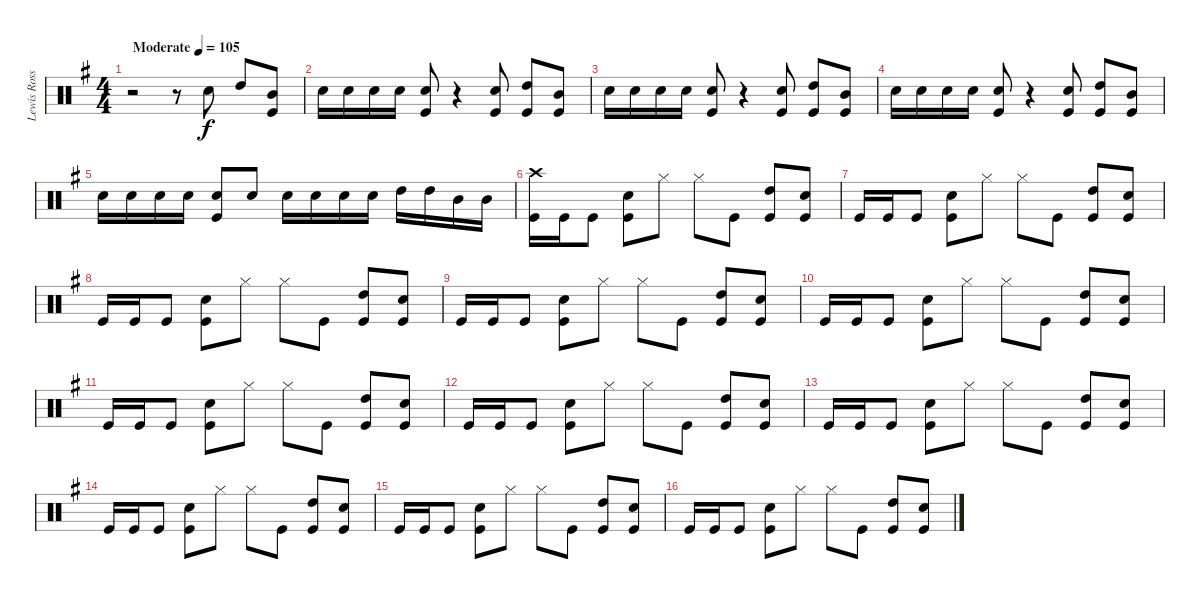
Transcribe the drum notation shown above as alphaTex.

\track ("Lewis Ross Drums" "Lewis Ross") {instrument percussion}
\staff {score}
\articulation defaults
\ts (4 4)
\tempo (105 "Moderate")
\clef neutral
\ks g
r.2{dy f} r.8 "Snare (hit) 2".8 "High Tom (hit)".8 ("Mid Tom (hit)" "Kick (hit)").8 |
"Snare (hit) 2".16 "Snare (hit) 2".16 "Snare (hit) 2".16 "Snare (hit) 2".16 ("Snare (hit) 2" "Kick (hit)").8 r.4 ("Snare (hit) 2" "Kick (hit)").8 ("High Tom (hit)" "Kick (hit)").8 ("Mid Tom (hit)" "Kick (hit)").8 |
"Snare (hit) 2".16 "Snare (hit) 2".16 "Snare (hit) 2".16 "Snare (hit) 2".16 ("Snare (hit) 2" "Kick (hit)").8 r.4 ("Snare (hit) 2" "Kick (hit)").8 ("High Tom (hit)" "Kick (hit)").8 ("Mid Tom (hit)" "Kick (hit)").8 |
"Snare (hit) 2".16 "Snare (hit) 2".16 "Snare (hit) 2".16 "Snare (hit) 2".16 ("Snare (hit) 2" "Kick (hit)").8 r.4 ("Snare (hit) 2" "Kick (hit)").8 ("High Tom (hit)" "Kick (hit)").8 ("Mid Tom (hit)" "Kick (hit)").8 |
"Snare (hit) 2".16 "Snare (hit) 2".16 "Snare (hit) 2".16 "Snare (hit) 2".16 ("Snare (hit) 2" "Kick (hit)").8 "Snare (hit) 2".8 "Snare (hit) 2".16 "Snare (hit) 2".16 "Snare (hit) 2".16 "Snare (hit) 2".16 "High Tom (hit)".16 "High Tom (hit)".16 "Mid Tom (hit)".16 "Mid Tom (hit)".16 |
("Crash high (hit)" "Kick (hit)").16 "Kick (hit)".16 "Kick (hit)".8 ("Snare (hit) 2" "Kick (hit)").8 "Hi-Hat (closed)".8 "Hi-Hat (closed)".8 "Kick (hit)".8 ("High Tom (hit)" "Kick (hit)").8 ("Snare (hit) 2" "Kick (hit)").8 |
"Kick (hit)".16 "Kick (hit)".16 "Kick (hit)".8 ("Snare (hit) 2" "Kick (hit)").8 "Hi-Hat (closed)".8 "Hi-Hat (closed)".8 "Kick (hit)".8 ("High Tom (hit)" "Kick (hit)").8 ("Snare (hit) 2" "Kick (hit)").8 |
"Kick (hit)".16 "Kick (hit)".16 "Kick (hit)".8 ("Snare (hit) 2" "Kick (hit)").8 "Hi-Hat (closed)".8 "Hi-Hat (closed)".8 "Kick (hit)".8 ("High Tom (hit)" "Kick (hit)").8 ("Snare (hit) 2" "Kick (hit)").8 |
"Kick (hit)".16 "Kick (hit)".16 "Kick (hit)".8 ("Snare (hit) 2" "Kick (hit)").8 "Hi-Hat (closed)".8 "Hi-Hat (closed)".8 "Kick (hit)".8 ("High Tom (hit)" "Kick (hit)").8 ("Snare (hit) 2" "Kick (hit)").8 |
"Kick (hit)".16 "Kick (hit)".16 "Kick (hit)".8 ("Snare (hit) 2" "Kick (hit)").8 "Hi-Hat (closed)".8 "Hi-Hat (closed)".8 "Kick (hit)".8 ("High Tom (hit)" "Kick (hit)").8 ("Snare (hit) 2" "Kick (hit)").8 |
"Kick (hit)".16 "Kick (hit)".16 "Kick (hit)".8 ("Snare (hit) 2" "Kick (hit)").8 "Hi-Hat (closed)".8 "Hi-Hat (closed)".8 "Kick (hit)".8 ("High Tom (hit)" "Kick (hit)").8 ("Snare (hit) 2" "Kick (hit)").8 |
"Kick (hit)".16 "Kick (hit)".16 "Kick (hit)".8 ("Snare (hit) 2" "Kick (hit)").8 "Hi-Hat (closed)".8 "Hi-Hat (closed)".8 "Kick (hit)".8 ("High Tom (hit)" "Kick (hit)").8 ("Snare (hit) 2" "Kick (hit)").8 |
"Kick (hit)".16 "Kick (hit)".16 "Kick (hit)".8 ("Snare (hit) 2" "Kick (hit)").8 "Hi-Hat (closed)".8 "Hi-Hat (closed)".8 "Kick (hit)".8 ("High Tom (hit)" "Kick (hit)").8 ("Snare (hit) 2" "Kick (hit)").8 |
"Kick (hit)".16 "Kick (hit)".16 "Kick (hit)".8 ("Snare (hit) 2" "Kick (hit)").8 "Hi-Hat (closed)".8 "Hi-Hat (closed)".8 "Kick (hit)".8 ("High Tom (hit)" "Kick (hit)").8 ("Snare (hit) 2" "Kick (hit)").8 |
"Kick (hit)".16 "Kick (hit)".16 "Kick (hit)".8 ("Snare (hit) 2" "Kick (hit)").8 "Hi-Hat (closed)".8 "Hi-Hat (closed)".8 "Kick (hit)".8 ("High Tom (hit)" "Kick (hit)").8 ("Snare (hit) 2" "Kick (hit)").8 |
"Kick (hit)".16 "Kick (hit)".16 "Kick (hit)".8 ("Snare (hit) 2" "Kick (hit)").8 "Hi-Hat (closed)".8 "Hi-Hat (closed)".8 "Kick (hit)".8 ("High Tom (hit)" "Kick (hit)").8 ("Snare (hit) 2" "Kick (hit)").8
